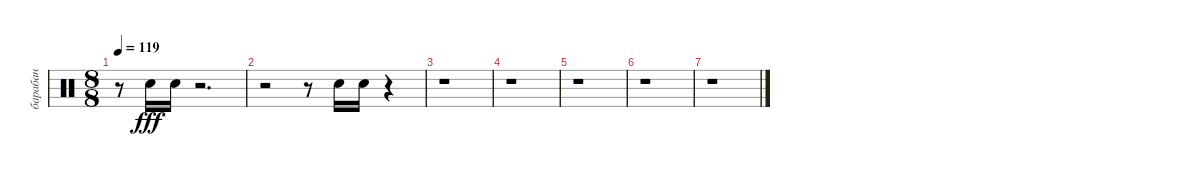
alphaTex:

\track ("барабан" "барабан") {instrument percussion}
\staff {score}
\articulation defaults
\ts (8 8)
\tempo 119
\clef neutral
\ks c
r.8{dy fff} "Snare (hit) 2".16 "Snare (hit) 2".16 r.2{d} |
r.2 r.8 "Snare (hit) 2".16 "Snare (hit) 2".16 r.4 |
r.1 |
r.1 |
r.1 |
r.1 |
r.1
